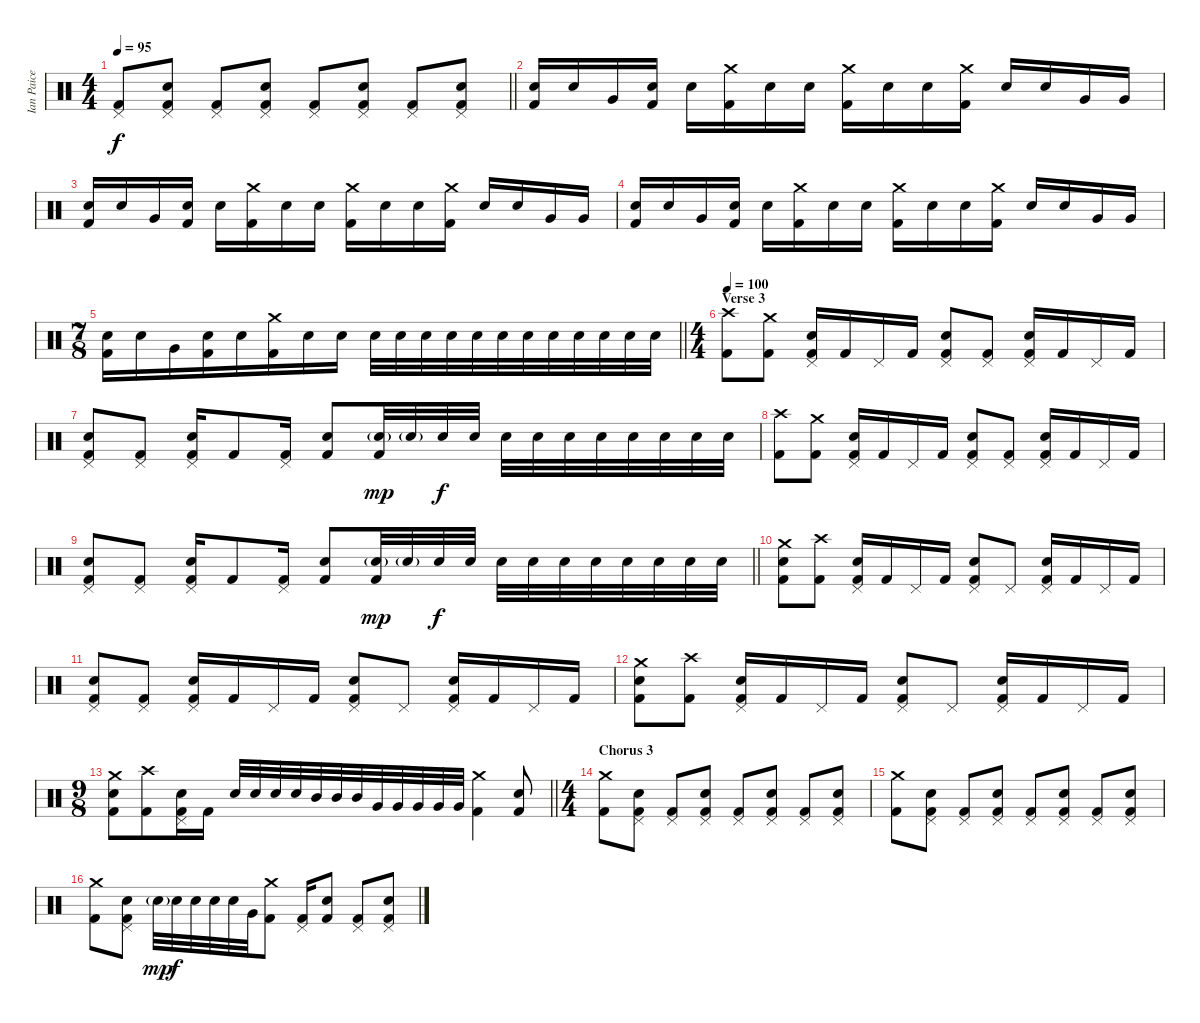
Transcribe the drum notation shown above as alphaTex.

\track ("Ian Paice - Drums" "Ian Paice ") {instrument percussion}
\staff {score}
\articulation defaults
\ts (4 4)
\tempo 95
\clef neutral
\barLineRight lightlight
\ks c
("Kick (hit) 2" "Pedal Hi-Hat (hit)").8{dy f} ("Kick (hit) 2" "Pedal Hi-Hat (hit)" "Electric Snare (hit)").8 ("Kick (hit) 2" "Pedal Hi-Hat (hit)").8 ("Kick (hit) 2" "Pedal Hi-Hat (hit)" "Electric Snare (hit)").8 ("Kick (hit) 2" "Pedal Hi-Hat (hit)").8 ("Kick (hit) 2" "Pedal Hi-Hat (hit)" "Electric Snare (hit)").8 ("Kick (hit) 2" "Pedal Hi-Hat (hit)").8 ("Kick (hit) 2" "Pedal Hi-Hat (hit)" "Electric Snare (hit)").8 |
("Kick (hit) 2" "Electric Snare (hit)").16 "Electric Snare (hit)".16 "Very Low Tom (hit)".16 ("Kick (hit) 2" "Electric Snare (hit)").16 "Electric Snare (hit)".16 ("Kick (hit) 2" "Crash medium (hit)").16 "Electric Snare (hit)".16 "Electric Snare (hit)".16 ("Kick (hit) 2" "Crash medium (hit)").16 "Electric Snare (hit)".16 "Electric Snare (hit)".16 ("Kick (hit) 2" "Crash medium (hit)").16 "Electric Snare (hit)".16 "Electric Snare (hit)".16 "Very Low Tom (hit)".16 "Very Low Tom (hit)".16 |
("Kick (hit) 2" "Electric Snare (hit)").16 "Electric Snare (hit)".16 "Very Low Tom (hit)".16 ("Kick (hit) 2" "Electric Snare (hit)").16 "Electric Snare (hit)".16 ("Kick (hit) 2" "Crash medium (hit)").16 "Electric Snare (hit)".16 "Electric Snare (hit)".16 ("Kick (hit) 2" "Crash medium (hit)").16 "Electric Snare (hit)".16 "Electric Snare (hit)".16 ("Kick (hit) 2" "Crash medium (hit)").16 "Electric Snare (hit)".16 "Electric Snare (hit)".16 "Very Low Tom (hit)".16 "Very Low Tom (hit)".16 |
("Kick (hit) 2" "Electric Snare (hit)").16 "Electric Snare (hit)".16 "Very Low Tom (hit)".16 ("Kick (hit) 2" "Electric Snare (hit)").16 "Electric Snare (hit)".16 ("Kick (hit) 2" "Crash medium (hit)").16 "Electric Snare (hit)".16 "Electric Snare (hit)".16 ("Kick (hit) 2" "Crash medium (hit)").16 "Electric Snare (hit)".16 "Electric Snare (hit)".16 ("Kick (hit) 2" "Crash medium (hit)").16 "Electric Snare (hit)".16 "Electric Snare (hit)".16 "Very Low Tom (hit)".16 "Very Low Tom (hit)".16 |
\ts (7 8)
\barLineRight lightlight
("Kick (hit) 2" "Electric Snare (hit)").16 "Electric Snare (hit)".16 "Very Low Tom (hit)".16 ("Kick (hit) 2" "Electric Snare (hit)").16 "Electric Snare (hit)".16 ("Kick (hit) 2" "Crash medium (hit)").16 "Electric Snare (hit)".16 "Electric Snare (hit)".16 "Electric Snare (hit)".32 "Electric Snare (hit)".32 "Electric Snare (hit)".32 "Electric Snare (hit)".32 "Electric Snare (hit)".32 "Electric Snare (hit)".32 "Electric Snare (hit)".32 "Electric Snare (hit)".32 "Electric Snare (hit)".32 "Electric Snare (hit)".32 "Electric Snare (hit)".32 "Electric Snare (hit)".32 |
\ts (4 4)
\section ("" "Verse 3")
\tempo 100
("Kick (hit) 2" "Crash high (hit)").8 ("Kick (hit) 2" "Crash medium (hit)").8 ("Kick (hit) 2" "Pedal Hi-Hat (hit)" "Electric Snare (hit)").16 "Kick (hit) 2".16 "Pedal Hi-Hat (hit)".16 "Kick (hit) 2".16 ("Kick (hit) 2" "Pedal Hi-Hat (hit)" "Electric Snare (hit)").8 ("Kick (hit) 2" "Pedal Hi-Hat (hit)").8 ("Kick (hit) 2" "Pedal Hi-Hat (hit)" "Electric Snare (hit)").16 "Kick (hit) 2".16 "Pedal Hi-Hat (hit)".16 "Kick (hit) 2".16 |
("Kick (hit) 2" "Pedal Hi-Hat (hit)" "Electric Snare (hit)").8 ("Kick (hit) 2" "Pedal Hi-Hat (hit)").8 ("Kick (hit) 2" "Pedal Hi-Hat (hit)" "Electric Snare (hit)").16 "Kick (hit) 2".8 ("Kick (hit) 2" "Pedal Hi-Hat (hit)").16 ("Kick (hit) 2" "Electric Snare (hit)").8 ("Kick (hit) 2" "Electric Snare (hit)"{g}).32{dy mp} "Electric Snare (hit)"{g}.32 "Electric Snare (hit)".32{dy f} "Electric Snare (hit)".32 "Electric Snare (hit)".32 "Electric Snare (hit)".32 "Electric Snare (hit)".32 "Electric Snare (hit)".32 "Electric Snare (hit)".32 "Electric Snare (hit)".32 "Electric Snare (hit)".32 "Electric Snare (hit)".32 |
("Kick (hit) 2" "Crash high (hit)").8 ("Kick (hit) 2" "Crash medium (hit)").8 ("Kick (hit) 2" "Pedal Hi-Hat (hit)" "Electric Snare (hit)").16 "Kick (hit) 2".16 "Pedal Hi-Hat (hit)".16 "Kick (hit) 2".16 ("Kick (hit) 2" "Pedal Hi-Hat (hit)" "Electric Snare (hit)").8 ("Kick (hit) 2" "Pedal Hi-Hat (hit)").8 ("Kick (hit) 2" "Pedal Hi-Hat (hit)" "Electric Snare (hit)").16 "Kick (hit) 2".16 "Pedal Hi-Hat (hit)".16 "Kick (hit) 2".16 |
\barLineRight lightlight
("Kick (hit) 2" "Pedal Hi-Hat (hit)" "Electric Snare (hit)").8 ("Kick (hit) 2" "Pedal Hi-Hat (hit)").8 ("Kick (hit) 2" "Pedal Hi-Hat (hit)" "Electric Snare (hit)").16 "Kick (hit) 2".8 ("Kick (hit) 2" "Pedal Hi-Hat (hit)").16 ("Kick (hit) 2" "Electric Snare (hit)").8 ("Kick (hit) 2" "Electric Snare (hit)"{g}).32{dy mp} "Electric Snare (hit)"{g}.32 "Electric Snare (hit)".32{dy f} "Electric Snare (hit)".32 "Electric Snare (hit)".32 "Electric Snare (hit)".32 "Electric Snare (hit)".32 "Electric Snare (hit)".32 "Electric Snare (hit)".32 "Electric Snare (hit)".32 "Electric Snare (hit)".32 "Electric Snare (hit)".32 |
("Kick (hit) 2" "Crash medium (hit)" "Electric Snare (hit)").8 ("Kick (hit) 2" "Crash high (hit)").8 ("Kick (hit) 2" "Pedal Hi-Hat (hit)" "Electric Snare (hit)").16 "Kick (hit) 2".16 "Pedal Hi-Hat (hit)".16 "Kick (hit) 2".16 ("Kick (hit) 2" "Pedal Hi-Hat (hit)" "Electric Snare (hit)").8 "Pedal Hi-Hat (hit)".8 ("Kick (hit) 2" "Pedal Hi-Hat (hit)" "Electric Snare (hit)").16 "Kick (hit) 2".16 "Pedal Hi-Hat (hit)".16 "Kick (hit) 2".16 |
("Kick (hit) 2" "Pedal Hi-Hat (hit)" "Electric Snare (hit)").8 ("Kick (hit) 2" "Pedal Hi-Hat (hit)").8 ("Kick (hit) 2" "Pedal Hi-Hat (hit)" "Electric Snare (hit)").16 "Kick (hit) 2".16 "Pedal Hi-Hat (hit)".16 "Kick (hit) 2".16 ("Kick (hit) 2" "Pedal Hi-Hat (hit)" "Electric Snare (hit)").8 "Pedal Hi-Hat (hit)".8 ("Kick (hit) 2" "Pedal Hi-Hat (hit)" "Electric Snare (hit)").16 "Kick (hit) 2".16 "Pedal Hi-Hat (hit)".16 "Kick (hit) 2".16 |
("Kick (hit) 2" "Crash medium (hit)" "Electric Snare (hit)").8 ("Kick (hit) 2" "Crash high (hit)").8 ("Kick (hit) 2" "Pedal Hi-Hat (hit)" "Electric Snare (hit)").16 "Kick (hit) 2".16 "Pedal Hi-Hat (hit)".16 "Kick (hit) 2".16 ("Kick (hit) 2" "Pedal Hi-Hat (hit)" "Electric Snare (hit)").8 "Pedal Hi-Hat (hit)".8 ("Kick (hit) 2" "Pedal Hi-Hat (hit)" "Electric Snare (hit)").16 "Kick (hit) 2".16 "Pedal Hi-Hat (hit)".16 "Kick (hit) 2".16 |
\ts (9 8)
\barLineRight lightlight
("Kick (hit) 2" "Crash medium (hit)" "Electric Snare (hit)").8 ("Kick (hit) 2" "Crash high (hit)").8 ("Kick (hit) 2" "Pedal Hi-Hat (hit)" "Electric Snare (hit)").16 "Kick (hit) 2".16 "Electric Snare (hit)".32 "Electric Snare (hit)".32 "Electric Snare (hit)".32 "Electric Snare (hit)".32 "Mid Tom (hit)".32 "Mid Tom (hit)".32 "Mid Tom (hit)".32 "Very Low Tom (hit)".32 "Very Low Tom (hit)".32 "Very Low Tom (hit)".32 "Very Low Tom (hit)".32 "Very Low Tom (hit)".32 ("Kick (hit) 2" "Crash medium (hit)").4 ("Kick (hit) 2" "Electric Snare (hit)").8 |
\ts (4 4)
\section ("" "Chorus 3")
("Kick (hit) 2" "Crash medium (hit)").8 ("Kick (hit) 2" "Pedal Hi-Hat (hit)" "Electric Snare (hit)").8 ("Kick (hit) 2" "Pedal Hi-Hat (hit)").8 ("Kick (hit) 2" "Pedal Hi-Hat (hit)" "Electric Snare (hit)").8 ("Kick (hit) 2" "Pedal Hi-Hat (hit)").8 ("Kick (hit) 2" "Pedal Hi-Hat (hit)" "Electric Snare (hit)").8 ("Kick (hit) 2" "Pedal Hi-Hat (hit)").8 ("Kick (hit) 2" "Pedal Hi-Hat (hit)" "Electric Snare (hit)").8 |
("Kick (hit) 2" "Crash medium (hit)").8 ("Kick (hit) 2" "Pedal Hi-Hat (hit)" "Electric Snare (hit)").8 ("Kick (hit) 2" "Pedal Hi-Hat (hit)").8 ("Kick (hit) 2" "Pedal Hi-Hat (hit)" "Electric Snare (hit)").8 ("Kick (hit) 2" "Pedal Hi-Hat (hit)").8 ("Kick (hit) 2" "Pedal Hi-Hat (hit)" "Electric Snare (hit)").8 ("Kick (hit) 2" "Pedal Hi-Hat (hit)").8 ("Kick (hit) 2" "Pedal Hi-Hat (hit)" "Electric Snare (hit)").8 |
("Kick (hit) 2" "Crash medium (hit)").8 ("Kick (hit) 2" "Pedal Hi-Hat (hit)" "Electric Snare (hit)").8 "Electric Snare (hit)"{g}.32{dy mp} "Electric Snare (hit)".32{dy f} "Electric Snare (hit)".32 "Electric Snare (hit)".32 "Electric Snare (hit)".32 "Very Low Tom (hit)".32 ("Kick (hit) 2" "Crash medium (hit)").8 ("Kick (hit) 2" "Pedal Hi-Hat (hit)").16 ("Kick (hit) 2" "Electric Snare (hit)").8 ("Kick (hit) 2" "Pedal Hi-Hat (hit)").8 ("Kick (hit) 2" "Pedal Hi-Hat (hit)" "Electric Snare (hit)").8
